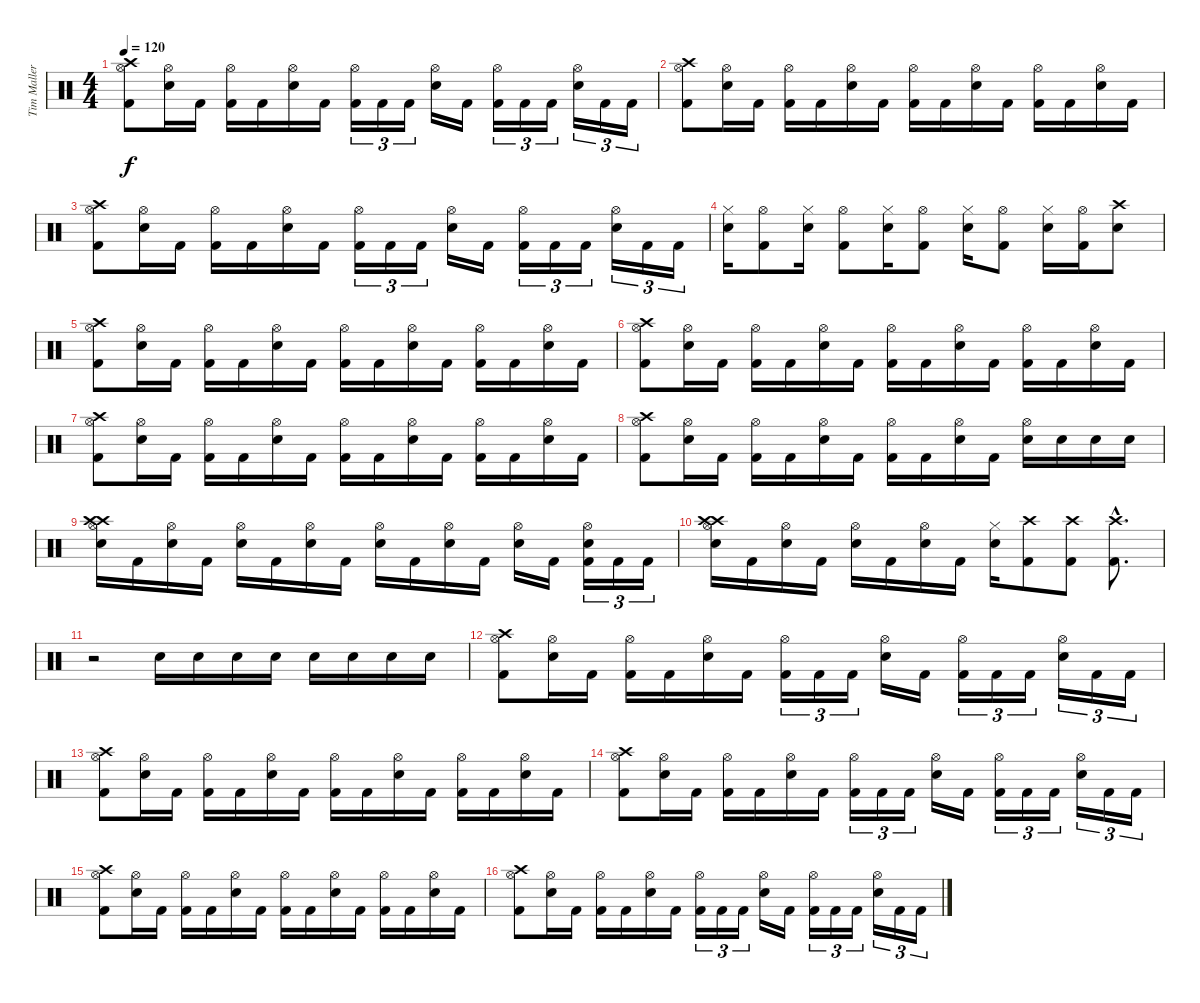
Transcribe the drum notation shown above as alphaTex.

\track ("Tim Mallere" "Tim Maller") {instrument percussion}
\staff {score}
\articulation defaults
\ts (4 4)
\tempo 120
\clef neutral
\ks c
("Crash high (hit)" "Hi-Hat (open)" "Kick (hit) 2").8{dy f} ("Electric Snare (hit)" "Hi-Hat (open)").16 "Kick (hit) 2".16 ("Hi-Hat (open)" "Kick (hit) 2").16 "Kick (hit) 2".16 ("Electric Snare (hit)" "Hi-Hat (open)").16 "Kick (hit) 2".16 ("Hi-Hat (open)" "Kick (hit) 2").16{tu (3 2)} "Kick (hit) 2".16{tu (3 2)} "Kick (hit) 2".16{tu (3 2)} ("Electric Snare (hit)" "Hi-Hat (open)").16 "Kick (hit) 2".16 ("Hi-Hat (open)" "Kick (hit) 2").16{tu (3 2)} "Kick (hit) 2".16{tu (3 2)} "Kick (hit) 2".16{tu (3 2)} ("Electric Snare (hit)" "Hi-Hat (open)").16{tu (3 2)} "Kick (hit) 2".16{tu (3 2)} "Kick (hit) 2".16{tu (3 2)} |
("Crash high (hit)" "Hi-Hat (open)" "Kick (hit) 2").8 ("Hi-Hat (open)" "Electric Snare (hit)").16 "Kick (hit) 2".16 ("Hi-Hat (open)" "Kick (hit) 2").16 "Kick (hit) 2".16 ("Hi-Hat (open)" "Electric Snare (hit)").16 "Kick (hit) 2".16 ("Hi-Hat (open)" "Kick (hit) 2").16 "Kick (hit) 2".16 ("Hi-Hat (open)" "Electric Snare (hit)").16 "Kick (hit) 2".16 ("Hi-Hat (open)" "Kick (hit) 2").16 "Kick (hit) 2".16 ("Hi-Hat (open)" "Electric Snare (hit)").16 "Kick (hit) 2".16 |
("Crash high (hit)" "Hi-Hat (open)" "Kick (hit) 2").8 ("Electric Snare (hit)" "Hi-Hat (open)").16 "Kick (hit) 2".16 ("Hi-Hat (open)" "Kick (hit) 2").16 "Kick (hit) 2".16 ("Electric Snare (hit)" "Hi-Hat (open)").16 "Kick (hit) 2".16 ("Hi-Hat (open)" "Kick (hit) 2").16{tu (3 2)} "Kick (hit) 2".16{tu (3 2)} "Kick (hit) 2".16{tu (3 2)} ("Electric Snare (hit)" "Hi-Hat (open)").16 "Kick (hit) 2".16 ("Hi-Hat (open)" "Kick (hit) 2").16{tu (3 2)} "Kick (hit) 2".16{tu (3 2)} "Kick (hit) 2".16{tu (3 2)} ("Electric Snare (hit)" "Hi-Hat (open)").16{tu (3 2)} "Kick (hit) 2".16{tu (3 2)} "Kick (hit) 2".16{tu (3 2)} |
("Hi-Hat (closed)" "Electric Snare (hit)").16 ("Hi-Hat (open)" "Kick (hit) 2").8 ("Hi-Hat (closed)" "Electric Snare (hit)").16 ("Hi-Hat (open)" "Kick (hit) 2").8 ("Hi-Hat (closed)" "Electric Snare (hit)").16 ("Hi-Hat (open)" "Kick (hit) 2").8 ("Hi-Hat (closed)" "Electric Snare (hit)").16 ("Hi-Hat (open)" "Kick (hit) 2").8 ("Hi-Hat (closed)" "Electric Snare (hit)").16 ("Hi-Hat (open)" "Kick (hit) 2").16 ("Crash high (hit)" "Electric Snare (hit)").8 |
("Crash high (hit)" "Hi-Hat (open)" "Kick (hit) 2").8 ("Hi-Hat (open)" "Electric Snare (hit)").16 "Kick (hit) 2".16 ("Hi-Hat (open)" "Kick (hit) 2").16 "Kick (hit) 2".16 ("Hi-Hat (open)" "Electric Snare (hit)").16 "Kick (hit) 2".16 ("Hi-Hat (open)" "Kick (hit) 2").16 "Kick (hit) 2".16 ("Hi-Hat (open)" "Electric Snare (hit)").16 "Kick (hit) 2".16 ("Hi-Hat (open)" "Kick (hit) 2").16 "Kick (hit) 2".16 ("Hi-Hat (open)" "Electric Snare (hit)").16 "Kick (hit) 2".16 |
("Crash high (hit)" "Hi-Hat (open)" "Kick (hit) 2").8 ("Hi-Hat (open)" "Electric Snare (hit)").16 "Kick (hit) 2".16 ("Hi-Hat (open)" "Kick (hit) 2").16 "Kick (hit) 2".16 ("Hi-Hat (open)" "Electric Snare (hit)").16 "Kick (hit) 2".16 ("Hi-Hat (open)" "Kick (hit) 2").16 "Kick (hit) 2".16 ("Hi-Hat (open)" "Electric Snare (hit)").16 "Kick (hit) 2".16 ("Hi-Hat (open)" "Kick (hit) 2").16 "Kick (hit) 2".16 ("Hi-Hat (open)" "Electric Snare (hit)").16 "Kick (hit) 2".16 |
("Crash high (hit)" "Hi-Hat (open)" "Kick (hit) 2").8 ("Hi-Hat (open)" "Electric Snare (hit)").16 "Kick (hit) 2".16 ("Hi-Hat (open)" "Kick (hit) 2").16 "Kick (hit) 2".16 ("Hi-Hat (open)" "Electric Snare (hit)").16 "Kick (hit) 2".16 ("Hi-Hat (open)" "Kick (hit) 2").16 "Kick (hit) 2".16 ("Hi-Hat (open)" "Electric Snare (hit)").16 "Kick (hit) 2".16 ("Hi-Hat (open)" "Kick (hit) 2").16 "Kick (hit) 2".16 ("Hi-Hat (open)" "Electric Snare (hit)").16 "Kick (hit) 2".16 |
("Crash high (hit)" "Hi-Hat (open)" "Kick (hit) 2").8 ("Hi-Hat (open)" "Electric Snare (hit)").16 "Kick (hit) 2".16 ("Hi-Hat (open)" "Kick (hit) 2").16 "Kick (hit) 2".16 ("Hi-Hat (open)" "Electric Snare (hit)").16 "Kick (hit) 2".16 ("Hi-Hat (open)" "Kick (hit) 2").16 "Kick (hit) 2".16 ("Hi-Hat (open)" "Electric Snare (hit)").16 "Kick (hit) 2".16 ("Hi-Hat (open)" "Electric Snare (hit)").16 "Electric Snare (hit)".16 "Electric Snare (hit)".16 "Electric Snare (hit)".16 |
("Crash high (hit)" "Hi-Hat (open)" "Electric Snare (hit)" "Crash high (hit)").16 "Kick (hit) 2".16 ("Hi-Hat (open)" "Electric Snare (hit)").16 "Kick (hit) 2".16 ("Hi-Hat (open)" "Electric Snare (hit)").16 "Kick (hit) 2".16 ("Hi-Hat (open)" "Electric Snare (hit)").16 "Kick (hit) 2".16 ("Hi-Hat (open)" "Electric Snare (hit)").16 "Kick (hit) 2".16 ("Hi-Hat (open)" "Electric Snare (hit)").16 "Kick (hit) 2".16 ("Hi-Hat (open)" "Electric Snare (hit)").16 "Kick (hit) 2".16 ("Hi-Hat (open)" "Electric Snare (hit)" "Kick (hit) 2").16{tu (3 2)} "Kick (hit) 2".16{tu (3 2)} "Kick (hit) 2".16{tu (3 2)} |
("Crash high (hit)" "Hi-Hat (open)" "Electric Snare (hit)" "Crash high (hit)").16 "Kick (hit) 2".16 ("Hi-Hat (open)" "Electric Snare (hit)").16 "Kick (hit) 2".16 ("Hi-Hat (open)" "Electric Snare (hit)").16 "Kick (hit) 2".16 ("Hi-Hat (open)" "Electric Snare (hit)").16 "Kick (hit) 2".16 ("Hi-Hat (closed)" "Electric Snare (hit)").16 ("Crash high (hit)" "Kick (hit) 2").8 ("Crash high (hit)" "Kick (hit) 2").8 ("Crash high (hit)"{hac} "Kick (hit) 2"{hac}).8{d} |
r.2 "Electric Snare (hit)".16 "Electric Snare (hit)".16 "Electric Snare (hit)".16 "Electric Snare (hit)".16 "Electric Snare (hit)".16 "Electric Snare (hit)".16 "Electric Snare (hit)".16 "Electric Snare (hit)".16 |
("Crash high (hit)" "Hi-Hat (open)" "Kick (hit) 2").8 ("Electric Snare (hit)" "Hi-Hat (open)").16 "Kick (hit) 2".16 ("Hi-Hat (open)" "Kick (hit) 2").16 "Kick (hit) 2".16 ("Electric Snare (hit)" "Hi-Hat (open)").16 "Kick (hit) 2".16 ("Hi-Hat (open)" "Kick (hit) 2").16{tu (3 2)} "Kick (hit) 2".16{tu (3 2)} "Kick (hit) 2".16{tu (3 2)} ("Electric Snare (hit)" "Hi-Hat (open)").16 "Kick (hit) 2".16 ("Hi-Hat (open)" "Kick (hit) 2").16{tu (3 2)} "Kick (hit) 2".16{tu (3 2)} "Kick (hit) 2".16{tu (3 2)} ("Electric Snare (hit)" "Hi-Hat (open)").16{tu (3 2)} "Kick (hit) 2".16{tu (3 2)} "Kick (hit) 2".16{tu (3 2)} |
("Crash high (hit)" "Hi-Hat (open)" "Kick (hit) 2").8 ("Hi-Hat (open)" "Electric Snare (hit)").16 "Kick (hit) 2".16 ("Hi-Hat (open)" "Kick (hit) 2").16 "Kick (hit) 2".16 ("Hi-Hat (open)" "Electric Snare (hit)").16 "Kick (hit) 2".16 ("Hi-Hat (open)" "Kick (hit) 2").16 "Kick (hit) 2".16 ("Hi-Hat (open)" "Electric Snare (hit)").16 "Kick (hit) 2".16 ("Hi-Hat (open)" "Kick (hit) 2").16 "Kick (hit) 2".16 ("Hi-Hat (open)" "Electric Snare (hit)").16 "Kick (hit) 2".16 |
("Crash high (hit)" "Hi-Hat (open)" "Kick (hit) 2").8 ("Electric Snare (hit)" "Hi-Hat (open)").16 "Kick (hit) 2".16 ("Hi-Hat (open)" "Kick (hit) 2").16 "Kick (hit) 2".16 ("Electric Snare (hit)" "Hi-Hat (open)").16 "Kick (hit) 2".16 ("Hi-Hat (open)" "Kick (hit) 2").16{tu (3 2)} "Kick (hit) 2".16{tu (3 2)} "Kick (hit) 2".16{tu (3 2)} ("Electric Snare (hit)" "Hi-Hat (open)").16 "Kick (hit) 2".16 ("Hi-Hat (open)" "Kick (hit) 2").16{tu (3 2)} "Kick (hit) 2".16{tu (3 2)} "Kick (hit) 2".16{tu (3 2)} ("Electric Snare (hit)" "Hi-Hat (open)").16{tu (3 2)} "Kick (hit) 2".16{tu (3 2)} "Kick (hit) 2".16{tu (3 2)} |
("Crash high (hit)" "Hi-Hat (open)" "Kick (hit) 2").8 ("Hi-Hat (open)" "Electric Snare (hit)").16 "Kick (hit) 2".16 ("Hi-Hat (open)" "Kick (hit) 2").16 "Kick (hit) 2".16 ("Hi-Hat (open)" "Electric Snare (hit)").16 "Kick (hit) 2".16 ("Hi-Hat (open)" "Kick (hit) 2").16 "Kick (hit) 2".16 ("Hi-Hat (open)" "Electric Snare (hit)").16 "Kick (hit) 2".16 ("Hi-Hat (open)" "Kick (hit) 2").16 "Kick (hit) 2".16 ("Hi-Hat (open)" "Electric Snare (hit)").16 "Kick (hit) 2".16 |
("Crash high (hit)" "Hi-Hat (open)" "Kick (hit) 2").8 ("Electric Snare (hit)" "Hi-Hat (open)").16 "Kick (hit) 2".16 ("Hi-Hat (open)" "Kick (hit) 2").16 "Kick (hit) 2".16 ("Electric Snare (hit)" "Hi-Hat (open)").16 "Kick (hit) 2".16 ("Hi-Hat (open)" "Kick (hit) 2").16{tu (3 2)} "Kick (hit) 2".16{tu (3 2)} "Kick (hit) 2".16{tu (3 2)} ("Electric Snare (hit)" "Hi-Hat (open)").16 "Kick (hit) 2".16 ("Hi-Hat (open)" "Kick (hit) 2").16{tu (3 2)} "Kick (hit) 2".16{tu (3 2)} "Kick (hit) 2".16{tu (3 2)} ("Electric Snare (hit)" "Hi-Hat (open)").16{tu (3 2)} "Kick (hit) 2".16{tu (3 2)} "Kick (hit) 2".16{tu (3 2)}
